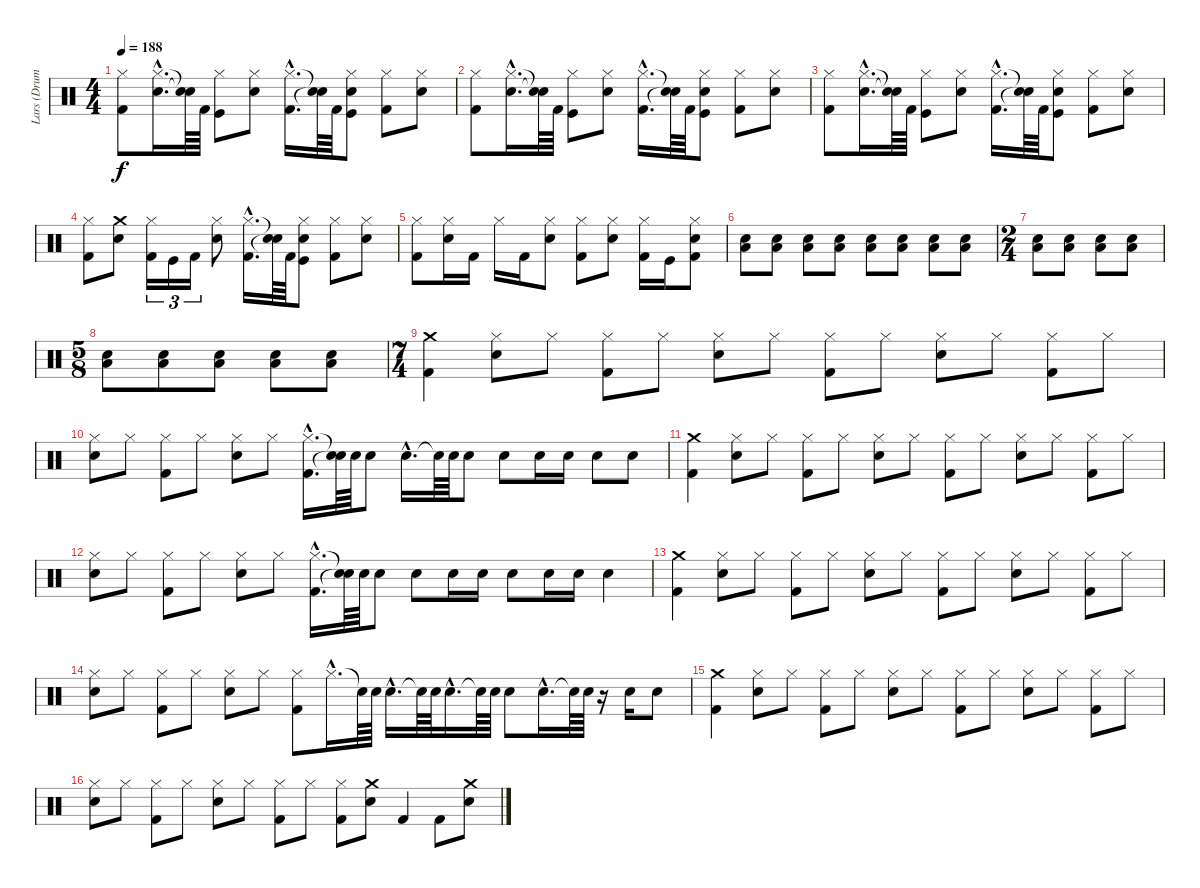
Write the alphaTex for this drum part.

\track ("Lars (Drums)" "Lars (Drum") {instrument percussion}
\staff {score}
\articulation defaults
\ts (4 4)
\tempo 188
\clef neutral
\ks c
("Kick (hit) 2" "Hi-Hat (closed)").8{dy f} ("Snare (hit) 2"{hac} "Hi-Hat (closed)"{hac}).16{d} ("Snare (hit)"{t} "Snare (hit)"{t}).64 "Kick (hit) 2".64 ("Kick (hit)" "Hi-Hat (closed)").8 ("Snare (hit) 2" "Hi-Hat (closed)").8 ("Kick (hit) 2"{hac} "Hi-Hat (closed)"{hac}).16{d} ("Snare (hit)"{t} "Snare (hit)"{t}).64 "Kick (hit) 2".64 ("Kick (hit)" "Snare (hit) 2" "Hi-Hat (closed)").8 ("Kick (hit) 2" "Hi-Hat (closed)").8 ("Snare (hit) 2" "Hi-Hat (closed)").8 |
("Kick (hit) 2" "Hi-Hat (closed)").8 ("Snare (hit) 2"{hac} "Hi-Hat (closed)"{hac}).16{d} ("Snare (hit)"{t} "Snare (hit)"{t}).64 "Kick (hit) 2".64 ("Kick (hit)" "Hi-Hat (closed)").8 ("Snare (hit) 2" "Hi-Hat (closed)").8 ("Kick (hit) 2"{hac} "Hi-Hat (closed)"{hac}).16{d} ("Snare (hit)"{t} "Snare (hit)"{t}).64 "Kick (hit) 2".64 ("Kick (hit)" "Snare (hit) 2" "Hi-Hat (closed)").8 ("Kick (hit) 2" "Hi-Hat (closed)").8 ("Snare (hit) 2" "Hi-Hat (closed)").8 |
("Kick (hit) 2" "Hi-Hat (closed)").8 ("Snare (hit) 2"{hac} "Hi-Hat (closed)"{hac}).16{d} ("Snare (hit)"{t} "Snare (hit)"{t}).64 "Kick (hit) 2".64 ("Kick (hit)" "Hi-Hat (closed)").8 ("Snare (hit) 2" "Hi-Hat (closed)").8 ("Kick (hit) 2"{hac} "Hi-Hat (closed)"{hac}).16{d} ("Snare (hit)"{t} "Snare (hit)"{t}).64 "Kick (hit) 2".64 ("Kick (hit)" "Snare (hit) 2" "Hi-Hat (closed)").8 ("Kick (hit) 2" "Hi-Hat (closed)").8 ("Snare (hit) 2" "Hi-Hat (closed)").8 |
("Hi-Hat (closed)" "Kick (hit) 2").8 ("Crash medium (hit)" "Snare (hit) 2").8 ("Kick (hit) 2" "Hi-Hat (closed)").16{tu (3 2)} "Kick (hit)".16{tu (3 2)} "Kick (hit) 2".16{tu (3 2)} ("Snare (hit) 2" "Hi-Hat (closed)").8 ("Kick (hit) 2"{hac} "Hi-Hat (closed)"{hac}).16{d} ("Snare (hit)"{t} "Snare (hit)"{t}).64 "Kick (hit) 2".64 ("Kick (hit)" "Snare (hit) 2" "Hi-Hat (closed)").8 ("Kick (hit) 2" "Hi-Hat (closed)").8 ("Snare (hit) 2" "Hi-Hat (closed)").8 |
("Hi-Hat (closed)" "Kick (hit) 2").8 ("Snare (hit) 2" "Hi-Hat (closed)").16 "Kick (hit) 2".16 "Hi-Hat (closed)".16 "Kick (hit) 2".16 ("Snare (hit) 2" "Hi-Hat (closed)").8 ("Hi-Hat (closed)" "Kick (hit) 2").8 ("Snare (hit) 2" "Hi-Hat (closed)").8 ("Hi-Hat (closed)" "Kick (hit) 2").16 "Kick (hit)".16 ("Kick (hit) 2" "Snare (hit) 2" "Hi-Hat (closed)").8 |
("Snare (hit) 2" "Low Tom (hit)").8 ("Snare (hit) 2" "Low Tom (hit)").8 ("Snare (hit) 2" "Low Tom (hit)").8 ("Snare (hit) 2" "Low Tom (hit)").8 ("Snare (hit) 2" "Low Tom (hit)").8 ("Snare (hit) 2" "Low Tom (hit)").8 ("Snare (hit) 2" "Low Tom (hit)").8 ("Snare (hit) 2" "Low Tom (hit)").8 |
\ts (2 4)
("Snare (hit) 2" "Low Tom (hit)").8 ("Snare (hit) 2" "Low Tom (hit)").8 ("Snare (hit) 2" "Low Tom (hit)").8 ("Snare (hit) 2" "Low Tom (hit)").8 |
\ts (5 8)
("Snare (hit) 2" "Low Tom (hit)").8 ("Snare (hit) 2" "Low Tom (hit)").8 ("Snare (hit) 2" "Low Tom (hit)").8 ("Snare (hit) 2" "Low Tom (hit)").8 ("Snare (hit) 2" "Low Tom (hit)").8 |
\ts (7 4)
("Kick (hit) 2" "Crash medium (hit)").4 ("Hi-Hat (closed)" "Snare (hit) 2").8 "Hi-Hat (closed)".8 ("Hi-Hat (closed)" "Kick (hit) 2").8 "Hi-Hat (closed)".8 ("Snare (hit) 2" "Hi-Hat (closed)").8 "Hi-Hat (closed)".8 ("Hi-Hat (closed)" "Kick (hit) 2").8 "Hi-Hat (closed)".8 ("Snare (hit) 2" "Hi-Hat (closed)").8 "Hi-Hat (closed)".8 ("Hi-Hat (closed)" "Kick (hit) 2").8 "Hi-Hat (closed)".8 |
("Hi-Hat (closed)" "Snare (hit) 2").8 "Hi-Hat (closed)".8 ("Hi-Hat (closed)" "Kick (hit) 2").8 "Hi-Hat (closed)".8 ("Hi-Hat (closed)" "Snare (hit) 2").8 "Hi-Hat (closed)".8 ("Hi-Hat (closed)"{hac} "Kick (hit) 2"{hac}).16{d} ("Snare (hit)"{t} "Snare (hit)"{t}).64 "Snare (hit) 2".64 "Snare (hit) 2".8 "Snare (hit) 2"{hac}.16{d} "Snare (hit)"{t}.64 "Snare (hit) 2".64 "Snare (hit) 2".8 "Snare (hit) 2".8 "Snare (hit) 2".16 "Snare (hit) 2".16 "Snare (hit) 2".8 "Snare (hit) 2".8 |
("Kick (hit) 2" "Crash medium (hit)").4 ("Hi-Hat (closed)" "Snare (hit) 2").8 "Hi-Hat (closed)".8 ("Hi-Hat (closed)" "Kick (hit) 2").8 "Hi-Hat (closed)".8 ("Snare (hit) 2" "Hi-Hat (closed)").8 "Hi-Hat (closed)".8 ("Hi-Hat (closed)" "Kick (hit) 2").8 "Hi-Hat (closed)".8 ("Snare (hit) 2" "Hi-Hat (closed)").8 "Hi-Hat (closed)".8 ("Hi-Hat (closed)" "Kick (hit) 2").8 "Hi-Hat (closed)".8 |
("Hi-Hat (closed)" "Snare (hit) 2").8 "Hi-Hat (closed)".8 ("Hi-Hat (closed)" "Kick (hit) 2").8 "Hi-Hat (closed)".8 ("Hi-Hat (closed)" "Snare (hit) 2").8 "Hi-Hat (closed)".8 ("Hi-Hat (closed)"{hac} "Kick (hit) 2"{hac}).16{d} ("Snare (hit)"{t} "Snare (hit)"{t}).64 "Snare (hit) 2".64 "Snare (hit) 2".8 "Snare (hit) 2".8 "Snare (hit) 2".16 "Snare (hit) 2".16 "Snare (hit) 2".8 "Snare (hit) 2".16 "Snare (hit) 2".16 "Snare (hit) 2".4 |
("Kick (hit) 2" "Crash medium (hit)").4 ("Hi-Hat (closed)" "Snare (hit) 2").8 "Hi-Hat (closed)".8 ("Hi-Hat (closed)" "Kick (hit) 2").8 "Hi-Hat (closed)".8 ("Snare (hit) 2" "Hi-Hat (closed)").8 "Hi-Hat (closed)".8 ("Hi-Hat (closed)" "Kick (hit) 2").8 "Hi-Hat (closed)".8 ("Snare (hit) 2" "Hi-Hat (closed)").8 "Hi-Hat (closed)".8 ("Hi-Hat (closed)" "Kick (hit) 2").8 "Hi-Hat (closed)".8 |
("Hi-Hat (closed)" "Snare (hit) 2").8 "Hi-Hat (closed)".8 ("Hi-Hat (closed)" "Kick (hit) 2").8 "Hi-Hat (closed)".8 ("Hi-Hat (closed)" "Snare (hit) 2").8 "Hi-Hat (closed)".8 ("Hi-Hat (closed)" "Kick (hit) 2").8 "Hi-Hat (closed)"{hac}.16{d} "Snare (hit)"{t}.64 "Snare (hit) 2".64 "Snare (hit) 2"{hac}.16{d} "Snare (hit)"{t}.64 "Snare (hit) 2".64 "Snare (hit) 2"{hac}.16{d} "Snare (hit)"{t}.64 "Snare (hit) 2".64 "Snare (hit) 2".8 "Snare (hit) 2"{hac}.16{d} "Snare (hit)"{t}.64 "Snare (hit) 2".64 r.16 "Snare (hit) 2".16 "Snare (hit) 2".8 |
("Kick (hit) 2" "Crash medium (hit)").4 ("Hi-Hat (closed)" "Snare (hit) 2").8 "Hi-Hat (closed)".8 ("Kick (hit) 2" "Hi-Hat (closed)").8 "Hi-Hat (closed)".8 ("Snare (hit) 2" "Hi-Hat (closed)").8 "Hi-Hat (closed)".8 ("Kick (hit) 2" "Hi-Hat (closed)").8 "Hi-Hat (closed)".8 ("Snare (hit) 2" "Hi-Hat (closed)").8 "Hi-Hat (closed)".8 ("Kick (hit) 2" "Hi-Hat (closed)").8 "Hi-Hat (closed)".8 |
("Hi-Hat (closed)" "Snare (hit) 2").8 "Hi-Hat (closed)".8 ("Hi-Hat (closed)" "Kick (hit) 2").8 "Hi-Hat (closed)".8 ("Snare (hit) 2" "Hi-Hat (closed)").8 "Hi-Hat (closed)".8 ("Hi-Hat (closed)" "Kick (hit) 2").8 "Hi-Hat (closed)".8 ("Hi-Hat (closed)" "Kick (hit) 2").8 ("Crash medium (hit)" "Snare (hit) 2").8 "Kick (hit) 2".4 "Kick (hit) 2".8 ("Snare (hit) 2" "Crash medium (hit)").8
